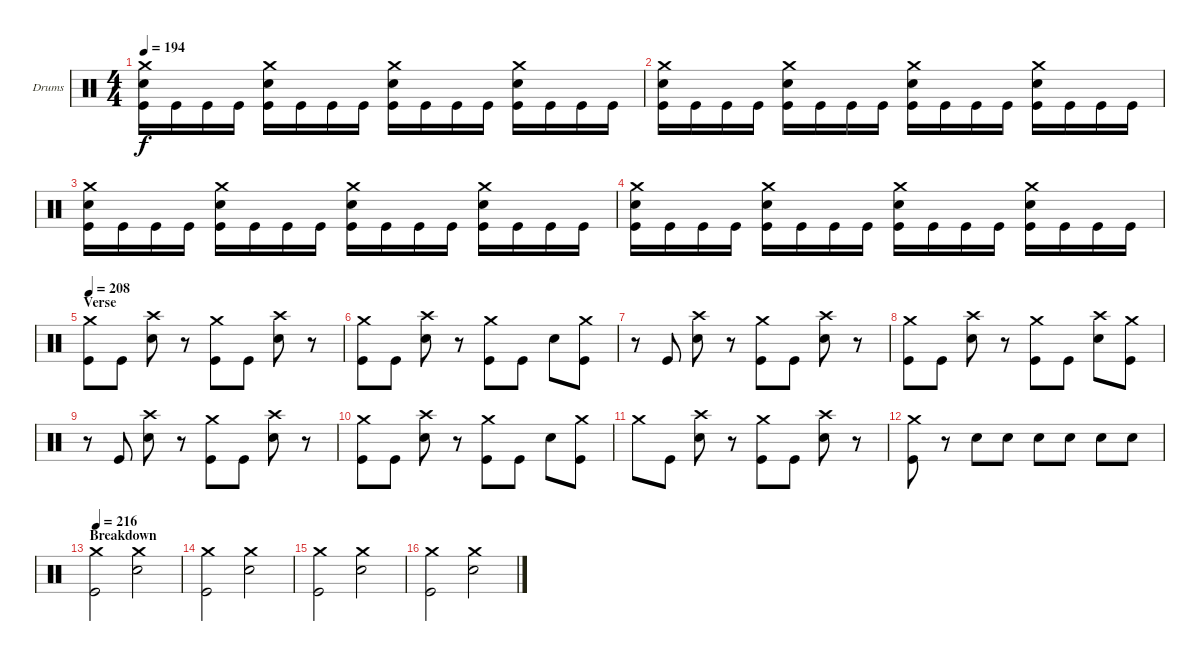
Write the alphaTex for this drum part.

\bracketExtendMode groupsimilarinstruments
\firstSystemTrackNameOrientation horizontal
\otherSystemsTrackNameOrientation horizontal
\track ("Drumkit" "Drums") {instrument percussion}
\staff {score}
\articulation defaults
\ts (4 4)
\tempo 194
\clef neutral
\ks c
("Crash medium (hit)" "Snare (hit) 2" "Kick (hit)").16{dy f} "Kick (hit)".16 "Kick (hit)".16 "Kick (hit)".16 ("Crash medium (hit)" "Snare (hit) 2" "Kick (hit)").16 "Kick (hit)".16 "Kick (hit)".16 "Kick (hit)".16 ("Crash medium (hit)" "Snare (hit) 2" "Kick (hit)").16 "Kick (hit)".16 "Kick (hit)".16 "Kick (hit)".16 ("Crash medium (hit)" "Snare (hit) 2" "Kick (hit)").16 "Kick (hit)".16 "Kick (hit)".16 "Kick (hit)".16 |
("Crash medium (hit)" "Snare (hit) 2" "Kick (hit)").16 "Kick (hit)".16 "Kick (hit)".16 "Kick (hit)".16 ("Crash medium (hit)" "Snare (hit) 2" "Kick (hit)").16 "Kick (hit)".16 "Kick (hit)".16 "Kick (hit)".16 ("Crash medium (hit)" "Snare (hit) 2" "Kick (hit)").16 "Kick (hit)".16 "Kick (hit)".16 "Kick (hit)".16 ("Crash medium (hit)" "Snare (hit) 2" "Kick (hit)").16 "Kick (hit)".16 "Kick (hit)".16 "Kick (hit)".16 |
("Crash medium (hit)" "Snare (hit) 2" "Kick (hit)").16 "Kick (hit)".16 "Kick (hit)".16 "Kick (hit)".16 ("Crash medium (hit)" "Snare (hit) 2" "Kick (hit)").16 "Kick (hit)".16 "Kick (hit)".16 "Kick (hit)".16 ("Crash medium (hit)" "Snare (hit) 2" "Kick (hit)").16 "Kick (hit)".16 "Kick (hit)".16 "Kick (hit)".16 ("Crash medium (hit)" "Snare (hit) 2" "Kick (hit)").16 "Kick (hit)".16 "Kick (hit)".16 "Kick (hit)".16 |
("Crash medium (hit)" "Snare (hit) 2" "Kick (hit)").16 "Kick (hit)".16 "Kick (hit)".16 "Kick (hit)".16 ("Crash medium (hit)" "Snare (hit) 2" "Kick (hit)").16 "Kick (hit)".16 "Kick (hit)".16 "Kick (hit)".16 ("Crash medium (hit)" "Snare (hit) 2" "Kick (hit)").16 "Kick (hit)".16 "Kick (hit)".16 "Kick (hit)".16 ("Crash medium (hit)" "Snare (hit) 2" "Kick (hit)").16 "Kick (hit)".16 "Kick (hit)".16 "Kick (hit)".16 |
\section ("" "Verse")
\tempo 208
("Crash medium (hit)" "Kick (hit)").8 "Kick (hit)".8 ("Crash high (hit)" "Snare (hit) 2").8 r.8 ("Crash medium (hit)" "Kick (hit)").8 "Kick (hit)".8 ("Crash high (hit)" "Snare (hit) 2").8 r.8 |
("Crash medium (hit)" "Kick (hit)").8 "Kick (hit)".8 ("Crash high (hit)" "Snare (hit) 2").8 r.8 ("Crash medium (hit)" "Kick (hit)").8 "Kick (hit)".8 "Snare (hit) 2".8 ("Kick (hit)" "Crash medium (hit)").8 |
r.8 "Kick (hit)".8 ("Crash high (hit)" "Snare (hit) 2").8 r.8 ("Crash medium (hit)" "Kick (hit)").8 "Kick (hit)".8 ("Crash high (hit)" "Snare (hit) 2").8 r.8 |
("Crash medium (hit)" "Kick (hit)").8 "Kick (hit)".8 ("Crash high (hit)" "Snare (hit) 2").8 r.8 ("Crash medium (hit)" "Kick (hit)").8 "Kick (hit)".8 ("Crash high (hit)" "Snare (hit) 2").8 ("Kick (hit)" "Crash medium (hit)").8 |
r.8 "Kick (hit)".8 ("Crash high (hit)" "Snare (hit) 2").8 r.8 ("Crash medium (hit)" "Kick (hit)").8 "Kick (hit)".8 ("Crash high (hit)" "Snare (hit) 2").8 r.8 |
("Crash medium (hit)" "Kick (hit)").8 "Kick (hit)".8 ("Crash high (hit)" "Snare (hit) 2").8 r.8 ("Crash medium (hit)" "Kick (hit)").8 "Kick (hit)".8 "Snare (hit) 2".8 ("Kick (hit)" "Crash medium (hit)").8 |
"Crash medium (hit)".8 "Kick (hit)".8 ("Crash high (hit)" "Snare (hit) 2").8 r.8 ("Crash medium (hit)" "Kick (hit)").8 "Kick (hit)".8 ("Crash high (hit)" "Snare (hit) 2").8 r.8 |
("Crash medium (hit)" "Kick (hit)").8 r.8 "Snare (hit) 2".8 "Snare (hit) 2".8 "Snare (hit) 2".8 "Snare (hit) 2".8 "Snare (hit) 2".8 "Snare (hit) 2".8 |
\section ("" "Breakdown")
\tempo (216 0.0125)
("Crash medium (hit)" "Kick (hit)").2 ("Crash medium (hit)" "Snare (hit) 2").2 |
("Crash medium (hit)" "Kick (hit)").2 ("Crash medium (hit)" "Snare (hit) 2").2 |
("Crash medium (hit)" "Kick (hit)").2 ("Crash medium (hit)" "Snare (hit) 2").2 |
("Crash medium (hit)" "Kick (hit)").2 ("Crash medium (hit)" "Snare (hit) 2").2
